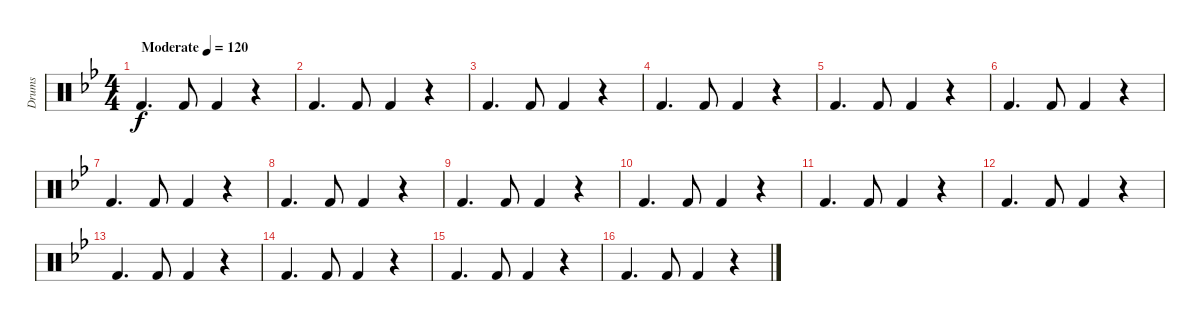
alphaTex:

\track ("Drums" "Drums") {instrument percussion}
\staff {score}
\articulation defaults
\ts (4 4)
\tempo (120 "Moderate")
\clef neutral
\ks bb "Kick (hit) 2".4{d dy f} "Kick (hit) 2".8 "Kick (hit) 2".4
r.4 |
"Kick (hit) 2".4{d} "Kick (hit) 2".8 "Kick (hit) 2".4 r.4 |
"Kick (hit) 2".4{d} "Kick (hit) 2".8 "Kick (hit) 2".4 r.4 |
"Kick (hit) 2".4{d} "Kick (hit) 2".8 "Kick (hit) 2".4 r.4 |
"Kick (hit) 2".4{d} "Kick (hit) 2".8 "Kick (hit) 2".4 r.4 |
"Kick (hit) 2".4{d} "Kick (hit) 2".8 "Kick (hit) 2".4 r.4 |
"Kick (hit) 2".4{d} "Kick (hit) 2".8 "Kick (hit) 2".4 r.4 |
"Kick (hit) 2".4{d} "Kick (hit) 2".8 "Kick (hit) 2".4 r.4 |
"Kick (hit) 2".4{d} "Kick (hit) 2".8 "Kick (hit) 2".4 r.4 |
"Kick (hit) 2".4{d} "Kick (hit) 2".8 "Kick (hit) 2".4 r.4 |
"Kick (hit) 2".4{d} "Kick (hit) 2".8 "Kick (hit) 2".4 r.4 |
"Kick (hit) 2".4{d} "Kick (hit) 2".8 "Kick (hit) 2".4 r.4 |
"Kick (hit) 2".4{d} "Kick (hit) 2".8 "Kick (hit) 2".4 r.4 |
"Kick (hit) 2".4{d} "Kick (hit) 2".8 "Kick (hit) 2".4 r.4 |
"Kick (hit) 2".4{d} "Kick (hit) 2".8 "Kick (hit) 2".4 r.4 |
"Kick (hit) 2".4{d} "Kick (hit) 2".8 "Kick (hit) 2".4 r.4
